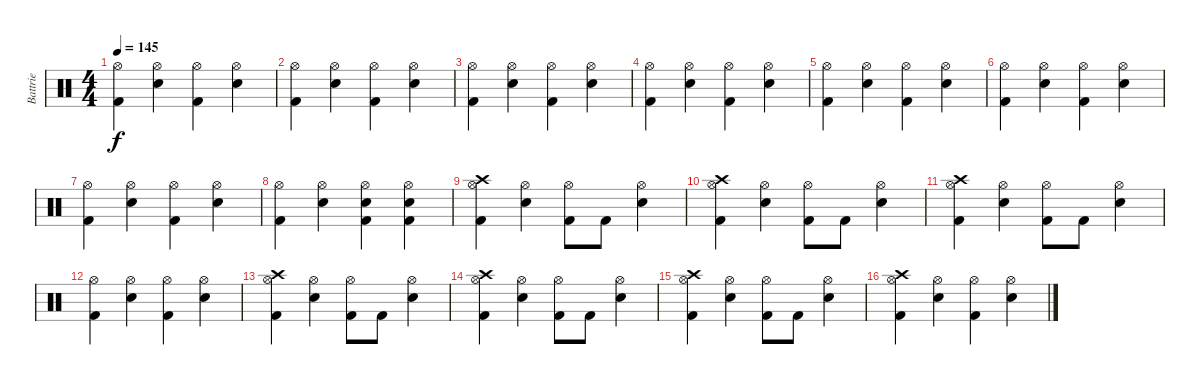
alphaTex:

\track ("Battrie" "Battrie") {instrument percussion}
\staff {score}
\articulation defaults
\ts (4 4)
\tempo 145
\clef neutral
\ks c
("Hi-Hat (open)" "Kick (hit) 2").4{dy f} ("Hi-Hat (open)" "Snare (hit) 2").4 ("Hi-Hat (open)" "Kick (hit) 2").4 ("Snare (hit) 2" "Hi-Hat (open)").4 |
("Hi-Hat (open)" "Kick (hit) 2").4 ("Hi-Hat (open)" "Snare (hit) 2").4 ("Hi-Hat (open)" "Kick (hit) 2").4 ("Snare (hit) 2" "Hi-Hat (open)").4 |
("Hi-Hat (open)" "Kick (hit) 2").4 ("Hi-Hat (open)" "Snare (hit) 2").4 ("Hi-Hat (open)" "Kick (hit) 2").4 ("Snare (hit) 2" "Hi-Hat (open)").4 |
("Hi-Hat (open)" "Kick (hit) 2").4 ("Hi-Hat (open)" "Snare (hit) 2").4 ("Hi-Hat (open)" "Kick (hit) 2").4 ("Snare (hit) 2" "Hi-Hat (open)").4 |
("Hi-Hat (open)" "Kick (hit) 2").4 ("Hi-Hat (open)" "Snare (hit) 2").4 ("Hi-Hat (open)" "Kick (hit) 2").4 ("Snare (hit) 2" "Hi-Hat (open)").4 |
("Hi-Hat (open)" "Kick (hit) 2").4 ("Hi-Hat (open)" "Snare (hit) 2").4 ("Hi-Hat (open)" "Kick (hit) 2").4 ("Snare (hit) 2" "Hi-Hat (open)").4 |
("Hi-Hat (open)" "Kick (hit) 2").4 ("Hi-Hat (open)" "Snare (hit) 2").4 ("Hi-Hat (open)" "Kick (hit) 2").4 ("Snare (hit) 2" "Hi-Hat (open)").4 |
("Hi-Hat (open)" "Kick (hit) 2").4 ("Hi-Hat (open)" "Snare (hit) 2").4 ("Snare (hit) 2" "Kick (hit) 2" "Hi-Hat (open)").4{volume 16} ("Snare (hit) 2" "Kick (hit) 2" "Hi-Hat (open)").4{volume 16} |
("Hi-Hat (open)" "Kick (hit) 2" "Crash high (hit)").4 ("Hi-Hat (open)" "Snare (hit) 2").4 ("Hi-Hat (open)" "Kick (hit) 2").8 "Kick (hit) 2".8 ("Hi-Hat (open)" "Snare (hit) 2").4 |
("Hi-Hat (open)" "Kick (hit) 2" "Crash high (hit)").4 ("Hi-Hat (open)" "Snare (hit) 2").4 ("Hi-Hat (open)" "Kick (hit) 2").8 "Kick (hit) 2".8 ("Hi-Hat (open)" "Snare (hit) 2").4 |
("Hi-Hat (open)" "Kick (hit) 2" "Crash high (hit)").4 ("Hi-Hat (open)" "Snare (hit) 2").4 ("Hi-Hat (open)" "Kick (hit) 2").8 "Kick (hit) 2".8 ("Hi-Hat (open)" "Snare (hit) 2").4 |
("Hi-Hat (open)" "Kick (hit) 2").4 ("Hi-Hat (open)" "Snare (hit) 2").4 ("Hi-Hat (open)" "Kick (hit) 2").4 ("Snare (hit) 2" "Hi-Hat (open)").4 |
("Hi-Hat (open)" "Kick (hit) 2" "Crash high (hit)").4 ("Hi-Hat (open)" "Snare (hit) 2").4 ("Hi-Hat (open)" "Kick (hit) 2").8 "Kick (hit) 2".8 ("Hi-Hat (open)" "Snare (hit) 2").4 |
("Hi-Hat (open)" "Kick (hit) 2" "Crash high (hit)").4 ("Hi-Hat (open)" "Snare (hit) 2").4 ("Hi-Hat (open)" "Kick (hit) 2").8 "Kick (hit) 2".8 ("Hi-Hat (open)" "Snare (hit) 2").4 |
("Hi-Hat (open)" "Kick (hit) 2" "Crash high (hit)").4 ("Hi-Hat (open)" "Snare (hit) 2").4 ("Hi-Hat (open)" "Kick (hit) 2").8 "Kick (hit) 2".8 ("Hi-Hat (open)" "Snare (hit) 2").4 |
("Hi-Hat (open)" "Kick (hit) 2" "Crash high (hit)").4 ("Hi-Hat (open)" "Snare (hit) 2").4 ("Hi-Hat (open)" "Kick (hit) 2").4 ("Snare (hit) 2" "Hi-Hat (open)").4
